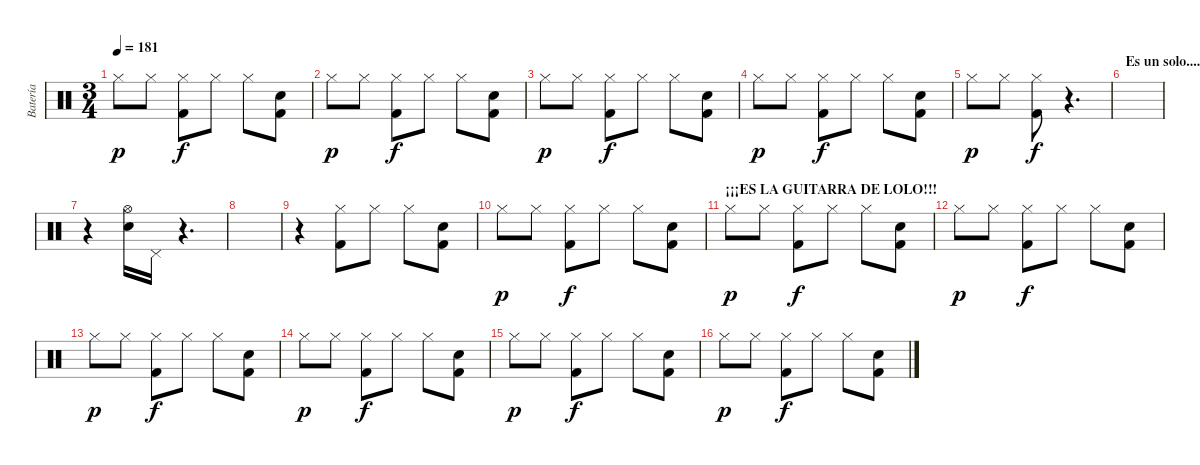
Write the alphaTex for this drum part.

\track ("Batería" "Batería") {instrument percussion}
\staff {score}
\articulation defaults
\ts (3 4)
\tempo 181
\clef neutral
\ks c "Hi-Hat (closed)".8{dy p} "Hi-Hat (closed)".8
("Hi-Hat (closed)" "Kick (hit) 2").8{dy f} "Hi-Hat (closed)".8 "Hi-Hat (closed)".8 ("Electric Snare (hit)" "Kick (hit) 2").8 |
"Hi-Hat (closed)".8{dy p} "Hi-Hat (closed)".8 ("Hi-Hat (closed)" "Kick (hit) 2").8{dy f} "Hi-Hat (closed)".8 "Hi-Hat (closed)".8 ("Electric Snare (hit)" "Kick (hit) 2").8 |
"Hi-Hat (closed)".8{dy p} "Hi-Hat (closed)".8 ("Hi-Hat (closed)" "Kick (hit) 2").8{dy f} "Hi-Hat (closed)".8 "Hi-Hat (closed)".8 ("Electric Snare (hit)" "Kick (hit) 2").8 |
"Hi-Hat (closed)".8{dy p} "Hi-Hat (closed)".8 ("Hi-Hat (closed)" "Kick (hit) 2").8{dy f} "Hi-Hat (closed)".8 "Hi-Hat (closed)".8 ("Electric Snare (hit)" "Kick (hit) 2").8 |
"Hi-Hat (closed)".8{dy p} "Hi-Hat (closed)".8 ("Hi-Hat (closed)" "Kick (hit) 2").8{dy f} r.4{d} |
\section ("" "Es un solo....")
|
r.4 ("Electric Snare (hit)" "Hi-Hat (open)").16 "Pedal Hi-Hat (hit)".16 r.4{d} |
|
r.4 ("Hi-Hat (closed)" "Kick (hit) 2").8 "Hi-Hat (closed)".8 "Hi-Hat (closed)".8 ("Electric Snare (hit)" "Kick (hit) 2").8 |
"Hi-Hat (closed)".8{dy p} "Hi-Hat (closed)".8 ("Hi-Hat (closed)" "Kick (hit) 2").8{dy f} "Hi-Hat (closed)".8 "Hi-Hat (closed)".8 ("Electric Snare (hit)" "Kick (hit) 2").8 |
\section ("" "¡¡¡ES LA GUITARRA DE LOLO!!!")
"Hi-Hat (closed)".8{dy p} "Hi-Hat (closed)".8 ("Hi-Hat (closed)" "Kick (hit) 2").8{dy f} "Hi-Hat (closed)".8 "Hi-Hat (closed)".8 ("Electric Snare (hit)" "Kick (hit) 2").8 |
"Hi-Hat (closed)".8{dy p} "Hi-Hat (closed)".8 ("Hi-Hat (closed)" "Kick (hit) 2").8{dy f} "Hi-Hat (closed)".8 "Hi-Hat (closed)".8 ("Electric Snare (hit)" "Kick (hit) 2").8 |
"Hi-Hat (closed)".8{dy p} "Hi-Hat (closed)".8 ("Hi-Hat (closed)" "Kick (hit) 2").8{dy f} "Hi-Hat (closed)".8 "Hi-Hat (closed)".8 ("Electric Snare (hit)" "Kick (hit) 2").8 |
"Hi-Hat (closed)".8{dy p} "Hi-Hat (closed)".8 ("Hi-Hat (closed)" "Kick (hit) 2").8{dy f} "Hi-Hat (closed)".8 "Hi-Hat (closed)".8 ("Electric Snare (hit)" "Kick (hit) 2").8 |
"Hi-Hat (closed)".8{dy p} "Hi-Hat (closed)".8 ("Hi-Hat (closed)" "Kick (hit) 2").8{dy f} "Hi-Hat (closed)".8 "Hi-Hat (closed)".8 ("Electric Snare (hit)" "Kick (hit) 2").8 |
"Hi-Hat (closed)".8{dy p} "Hi-Hat (closed)".8 ("Hi-Hat (closed)" "Kick (hit) 2").8{dy f} "Hi-Hat (closed)".8 "Hi-Hat (closed)".8 ("Electric Snare (hit)" "Kick (hit) 2").8
